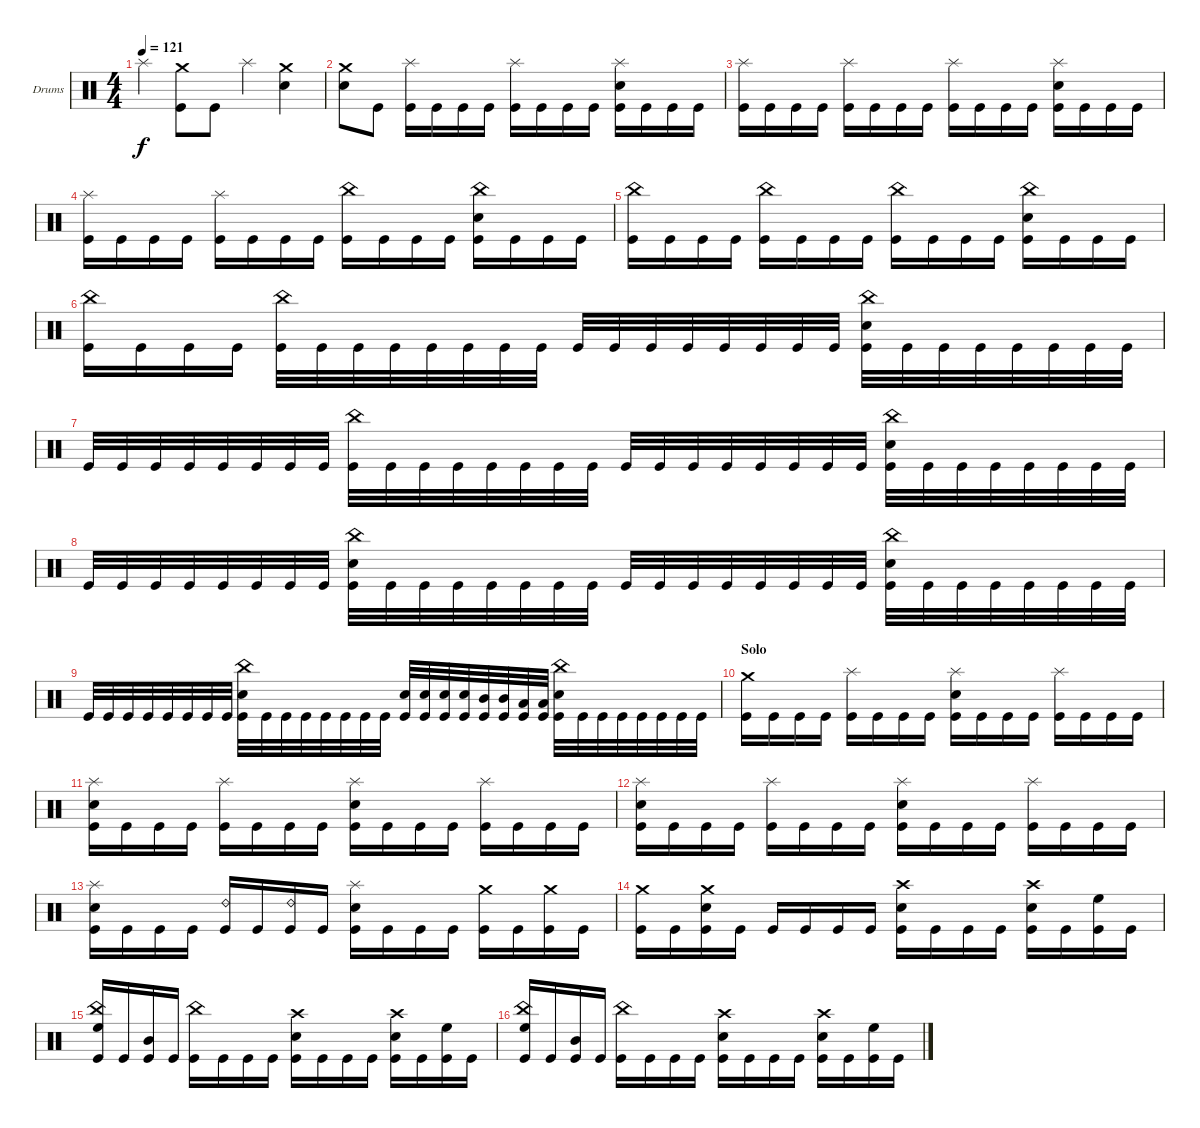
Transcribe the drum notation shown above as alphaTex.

\bracketExtendMode groupsimilarinstruments
\firstSystemTrackNameOrientation horizontal
\otherSystemsTrackNameOrientation horizontal
\track ("Drumkit" "Drums") {instrument percussion}
\staff {score}
\articulation defaults
\ts (4 4)
\tempo 121
\clef neutral
\ks c "Splash (hit)".4{dy f}
("Kick (hit)" "Crash medium (hit)").8 "Kick (hit)".8 "Splash (hit)".4 ("Crash medium (hit)" "Snare (hit) 2").4 |
("Crash medium (hit)" "Snare (hit) 2").8 "Kick (hit)".8 ("Kick (hit)" "Splash (hit)").16 "Kick (hit)".16 "Kick (hit)".16 "Kick (hit)".16 ("Kick (hit)" "Splash (hit)").16 "Kick (hit)".16 "Kick (hit)".16 "Kick (hit)".16 ("Kick (hit)" "Splash (hit)" "Snare (hit) 2").16 "Kick (hit)".16 "Kick (hit)".16 "Kick (hit)".16 |
("Kick (hit)" "Splash (hit)").16 "Kick (hit)".16 "Kick (hit)".16 "Kick (hit)".16 ("Kick (hit)" "Splash (hit)").16 "Kick (hit)".16 "Kick (hit)".16 "Kick (hit)".16 ("Kick (hit)" "Splash (hit)").16 "Kick (hit)".16 "Kick (hit)".16 "Kick (hit)".16 ("Kick (hit)" "Splash (hit)" "Snare (hit) 2").16 "Kick (hit)".16 "Kick (hit)".16 "Kick (hit)".16 |
("Kick (hit)" "Splash (hit)").16 "Kick (hit)".16 "Kick (hit)".16 "Kick (hit)".16 ("Kick (hit)" "Splash (hit)").16 "Kick (hit)".16 "Kick (hit)".16 "Kick (hit)".16 ("Kick (hit)" "China (hit)").16 "Kick (hit)".16 "Kick (hit)".16 "Kick (hit)".16 ("Kick (hit)" "Snare (hit) 2" "China (hit)").16 "Kick (hit)".16 "Kick (hit)".16 "Kick (hit)".16 |
("Kick (hit)" "China (hit)").16 "Kick (hit)".16 "Kick (hit)".16 "Kick (hit)".16 ("Kick (hit)" "China (hit)").16 "Kick (hit)".16 "Kick (hit)".16 "Kick (hit)".16 ("Kick (hit)" "China (hit)").16 "Kick (hit)".16 "Kick (hit)".16 "Kick (hit)".16 ("Kick (hit)" "Snare (hit) 2" "China (hit)").16 "Kick (hit)".16 "Kick (hit)".16 "Kick (hit)".16 |
("Kick (hit)" "China (hit)").16 "Kick (hit)".16 "Kick (hit)".16 "Kick (hit)".16 ("Kick (hit)" "China (hit)").32 "Kick (hit)".32 "Kick (hit)".32 "Kick (hit)".32 "Kick (hit)".32 "Kick (hit)".32 "Kick (hit)".32 "Kick (hit)".32 "Kick (hit)".32 "Kick (hit)".32 "Kick (hit)".32 "Kick (hit)".32 "Kick (hit)".32 "Kick (hit)".32 "Kick (hit)".32 "Kick (hit)".32 ("Kick (hit)" "Snare (hit) 2" "China (hit)").32 "Kick (hit)".32 "Kick (hit)".32 "Kick (hit)".32 "Kick (hit)".32 "Kick (hit)".32 "Kick (hit)".32 "Kick (hit)".32 |
"Kick (hit)".32 "Kick (hit)".32 "Kick (hit)".32 "Kick (hit)".32 "Kick (hit)".32 "Kick (hit)".32 "Kick (hit)".32 "Kick (hit)".32 ("Kick (hit)" "China (hit)").32 "Kick (hit)".32 "Kick (hit)".32 "Kick (hit)".32 "Kick (hit)".32 "Kick (hit)".32 "Kick (hit)".32 "Kick (hit)".32 "Kick (hit)".32 "Kick (hit)".32 "Kick (hit)".32 "Kick (hit)".32 "Kick (hit)".32 "Kick (hit)".32 "Kick (hit)".32 "Kick (hit)".32 ("Kick (hit)" "China (hit)" "Snare (hit) 2").32 "Kick (hit)".32 "Kick (hit)".32 "Kick (hit)".32 "Kick (hit)".32 "Kick (hit)".32 "Kick (hit)".32 "Kick (hit)".32 |
"Kick (hit)".32 "Kick (hit)".32 "Kick (hit)".32 "Kick (hit)".32 "Kick (hit)".32 "Kick (hit)".32 "Kick (hit)".32 "Kick (hit)".32 ("Kick (hit)" "China (hit)" "Snare (hit) 2").32 "Kick (hit)".32 "Kick (hit)".32 "Kick (hit)".32 "Kick (hit)".32 "Kick (hit)".32 "Kick (hit)".32 "Kick (hit)".32 "Kick (hit)".32 "Kick (hit)".32 "Kick (hit)".32 "Kick (hit)".32 "Kick (hit)".32 "Kick (hit)".32 "Kick (hit)".32 "Kick (hit)".32 ("Kick (hit)" "China (hit)" "Snare (hit) 2").32 "Kick (hit)".32 "Kick (hit)".32 "Kick (hit)".32 "Kick (hit)".32 "Kick (hit)".32 "Kick (hit)".32 "Kick (hit)".32 |
"Kick (hit)".32 "Kick (hit)".32 "Kick (hit)".32 "Kick (hit)".32 "Kick (hit)".32 "Kick (hit)".32 "Kick (hit)".32 "Kick (hit)".32 ("Kick (hit)" "China (hit)" "Snare (hit) 2").32 "Kick (hit)".32 "Kick (hit)".32 "Kick (hit)".32 "Kick (hit)".32 "Kick (hit)".32 "Kick (hit)".32 "Kick (hit)".32 ("Kick (hit)" "Snare (hit) 2").32 ("Kick (hit)" "Snare (hit) 2").32 ("Kick (hit)" "Snare (hit) 2").32 ("Kick (hit)" "Snare (hit) 2").32 ("Kick (hit)" "Mid Tom (hit)").32 ("Kick (hit)" "Mid Tom (hit)").32 ("Kick (hit)" "Low Tom (hit)").32 ("Kick (hit)" "Low Tom (hit)").32 ("Kick (hit)" "China (hit)" "Snare (hit) 2").32 "Kick (hit)".32 "Kick (hit)".32 "Kick (hit)".32 "Kick (hit)".32 "Kick (hit)".32 "Kick (hit)".32 "Kick (hit)".32 |
\section ("" "Solo")
("Kick (hit)" "Crash medium (hit)").16 "Kick (hit)".16 "Kick (hit)".16 "Kick (hit)".16 ("Kick (hit)" "Splash (hit)").16 "Kick (hit)".16 "Kick (hit)".16 "Kick (hit)".16 ("Kick (hit)" "Splash (hit)" "Snare (hit) 2").16 "Kick (hit)".16 "Kick (hit)".16 "Kick (hit)".16 ("Kick (hit)" "Splash (hit)").16 "Kick (hit)".16 "Kick (hit)".16 "Kick (hit)".16 |
("Kick (hit)" "Splash (hit)" "Snare (hit) 2").16 "Kick (hit)".16 "Kick (hit)".16 "Kick (hit)".16 ("Kick (hit)" "Splash (hit)").16 "Kick (hit)".16 "Kick (hit)".16 "Kick (hit)".16 ("Kick (hit)" "Splash (hit)" "Snare (hit) 2").16 "Kick (hit)".16 "Kick (hit)".16 "Kick (hit)".16 ("Kick (hit)" "Splash (hit)").16 "Kick (hit)".16 "Kick (hit)".16 "Kick (hit)".16 |
("Kick (hit)" "Splash (hit)" "Snare (hit) 2").16 "Kick (hit)".16 "Kick (hit)".16 "Kick (hit)".16 ("Kick (hit)" "Splash (hit)").16 "Kick (hit)".16 "Kick (hit)".16 "Kick (hit)".16 ("Kick (hit)" "Splash (hit)" "Snare (hit) 2").16 "Kick (hit)".16 "Kick (hit)".16 "Kick (hit)".16 ("Kick (hit)" "Splash (hit)").16 "Kick (hit)".16 "Kick (hit)".16 "Kick (hit)".16 |
("Kick (hit)" "Splash (hit)" "Snare (hit) 2").16 "Kick (hit)".16 "Kick (hit)".16 "Kick (hit)".16 ("Kick (hit)" "Ride (bell) 2").16 "Kick (hit)".16 ("Kick (hit)" "Ride (bell) 2").16 "Kick (hit)".16 ("Kick (hit)" "Snare (hit) 2" "Splash (hit)").16 "Kick (hit)".16 "Kick (hit)".16 "Kick (hit)".16 ("Kick (hit)" "Crash medium (hit)").16 "Kick (hit)".16 ("Kick (hit)" "Crash medium (hit)").16 "Kick (hit)".16 |
("Kick (hit)" "Crash medium (hit)").16 "Kick (hit)".16 ("Kick (hit)" "Crash medium (hit)" "Snare (hit) 2").16 "Kick (hit)".16 "Kick (hit)".16 "Kick (hit)".16 "Kick (hit)".16 "Kick (hit)".16 ("Kick (hit)" "Snare (hit) 2" "Crash high (hit)").16 "Kick (hit)".16 "Kick (hit)".16 "Kick (hit)".16 ("Kick (hit)" "Snare (hit) 2" "Crash high (hit)").16 "Kick (hit)".16 ("Kick (hit)" "High Floor Tom (hit)").16 "Kick (hit)".16 |
("Kick (hit)" "High Floor Tom (hit)" "China (hit)").16 "Kick (hit)".16 ("Kick (hit)" "Mid Tom (hit)").16 "Kick (hit)".16 ("Kick (hit)" "China (hit)").16 "Kick (hit)".16 "Kick (hit)".16 "Kick (hit)".16 ("Kick (hit)" "Snare (hit) 2" "Crash high (hit)").16 "Kick (hit)".16 "Kick (hit)".16 "Kick (hit)".16 ("Kick (hit)" "Snare (hit) 2" "Crash high (hit)").16 "Kick (hit)".16 ("Kick (hit)" "High Floor Tom (hit)").16 "Kick (hit)".16 |
("Kick (hit)" "High Floor Tom (hit)" "China (hit)").16 "Kick (hit)".16 ("Kick (hit)" "Mid Tom (hit)").16 "Kick (hit)".16 ("Kick (hit)" "China (hit)").16 "Kick (hit)".16 "Kick (hit)".16 "Kick (hit)".16 ("Kick (hit)" "Snare (hit) 2" "Crash high (hit)").16 "Kick (hit)".16 "Kick (hit)".16 "Kick (hit)".16 ("Kick (hit)" "Snare (hit) 2" "Crash high (hit)").16 "Kick (hit)".16 ("Kick (hit)" "High Floor Tom (hit)").16 "Kick (hit)".16
